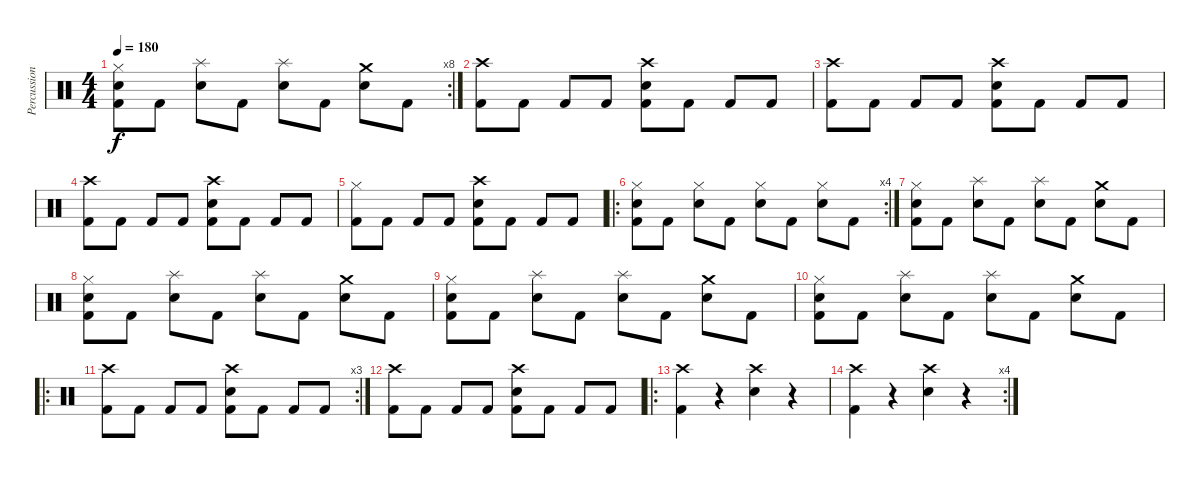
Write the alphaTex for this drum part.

\track ("Percussion" "Percussion") {instrument percussion}
\staff {score}
\articulation defaults
\rc 8
\ts (4 4)
\tempo 180
\clef neutral
\ks c
("Kick (hit) 2" "Snare (hit) 2" "Hi-Hat (closed)").8{dy f} "Kick (hit) 2".8 ("Snare (hit) 2" "Splash (hit)").8 "Kick (hit) 2".8 ("Snare (hit) 2" "Splash (hit)").8 "Kick (hit) 2".8 ("Snare (hit) 2" "Crash medium (hit)").8 "Kick (hit) 2".8 |
("Kick (hit) 2" "Crash high (hit)").8 "Kick (hit) 2".8 "Kick (hit) 2".8 "Kick (hit) 2".8 ("Kick (hit) 2" "Snare (hit) 2" "Crash high (hit)").8 "Kick (hit) 2".8 "Kick (hit) 2".8 "Kick (hit) 2".8 |
("Kick (hit) 2" "Crash high (hit)").8 "Kick (hit) 2".8 "Kick (hit) 2".8 "Kick (hit) 2".8 ("Kick (hit) 2" "Snare (hit) 2" "Crash high (hit)").8 "Kick (hit) 2".8 "Kick (hit) 2".8 "Kick (hit) 2".8 |
("Kick (hit) 2" "Crash high (hit)").8 "Kick (hit) 2".8 "Kick (hit) 2".8 "Kick (hit) 2".8 ("Kick (hit) 2" "Snare (hit) 2" "Crash high (hit)").8 "Kick (hit) 2".8 "Kick (hit) 2".8 "Kick (hit) 2".8 |
("Kick (hit) 2" "Hi-Hat (closed)").8 "Kick (hit) 2".8 "Kick (hit) 2".8 "Kick (hit) 2".8 ("Kick (hit) 2" "Snare (hit) 2" "Crash high (hit)").8 "Kick (hit) 2".8 "Kick (hit) 2".8 "Kick (hit) 2".8 |
\ro
\rc 4
("Kick (hit) 2" "Snare (hit) 2" "Hi-Hat (closed)").8 "Kick (hit) 2".8 ("Snare (hit) 2" "Hi-Hat (closed)").8 "Kick (hit) 2".8 ("Snare (hit) 2" "Hi-Hat (closed)").8 "Kick (hit) 2".8 ("Snare (hit) 2" "Hi-Hat (closed)").8 "Kick (hit) 2".8 |
("Kick (hit) 2" "Snare (hit) 2" "Hi-Hat (closed)").8 "Kick (hit) 2".8 ("Snare (hit) 2" "Splash (hit)").8 "Kick (hit) 2".8 ("Snare (hit) 2" "Splash (hit)").8 "Kick (hit) 2".8 ("Snare (hit) 2" "Crash medium (hit)").8 "Kick (hit) 2".8 |
("Kick (hit) 2" "Snare (hit) 2" "Hi-Hat (closed)").8 "Kick (hit) 2".8 ("Snare (hit) 2" "Splash (hit)").8 "Kick (hit) 2".8 ("Snare (hit) 2" "Splash (hit)").8 "Kick (hit) 2".8 ("Snare (hit) 2" "Crash medium (hit)").8 "Kick (hit) 2".8 |
("Kick (hit) 2" "Snare (hit) 2" "Hi-Hat (closed)").8 "Kick (hit) 2".8 ("Snare (hit) 2" "Splash (hit)").8 "Kick (hit) 2".8 ("Snare (hit) 2" "Splash (hit)").8 "Kick (hit) 2".8 ("Snare (hit) 2" "Crash medium (hit)").8 "Kick (hit) 2".8 |
("Kick (hit) 2" "Snare (hit) 2" "Hi-Hat (closed)").8 "Kick (hit) 2".8 ("Snare (hit) 2" "Splash (hit)").8 "Kick (hit) 2".8 ("Snare (hit) 2" "Splash (hit)").8 "Kick (hit) 2".8 ("Snare (hit) 2" "Crash medium (hit)").8 "Kick (hit) 2".8 |
\ro
\rc 3
("Kick (hit) 2" "Crash high (hit)").8 "Kick (hit) 2".8 "Kick (hit) 2".8 "Kick (hit) 2".8 ("Kick (hit) 2" "Snare (hit) 2" "Crash high (hit)").8 "Kick (hit) 2".8 "Kick (hit) 2".8 "Kick (hit) 2".8 |
("Kick (hit) 2" "Crash high (hit)").8 "Kick (hit) 2".8 "Kick (hit) 2".8 "Kick (hit) 2".8 ("Kick (hit) 2" "Snare (hit) 2" "Crash high (hit)").8 "Kick (hit) 2".8 "Kick (hit) 2".8 "Kick (hit) 2".8 |
\ro
("Kick (hit) 2" "Crash high (hit)").4 r.4 ("Snare (hit) 2" "Crash high (hit)").4 r.4 |
\rc 4
("Kick (hit) 2" "Crash high (hit)").4 r.4 ("Snare (hit) 2" "Crash high (hit)").4 r.4
